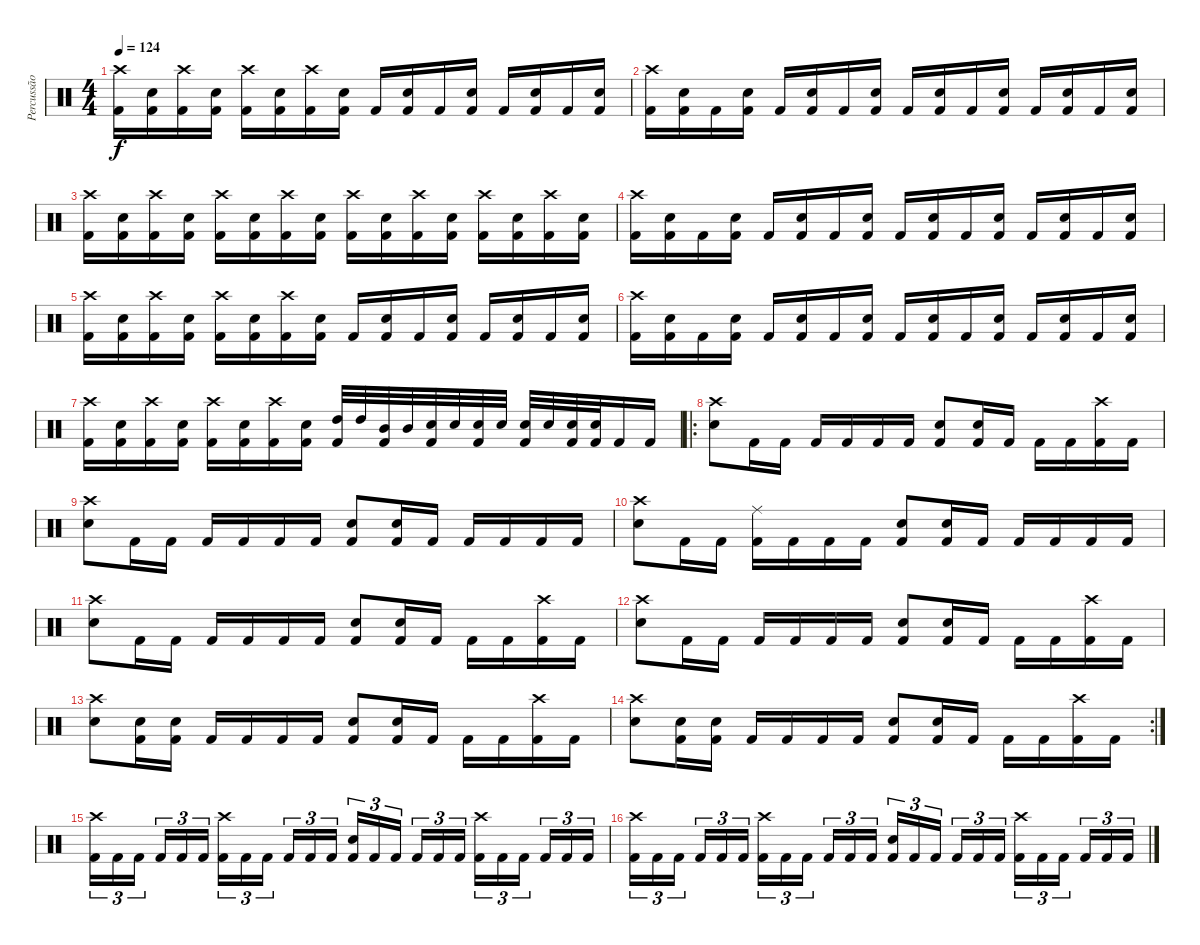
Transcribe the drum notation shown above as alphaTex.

\track ("Percussão" "Percussão") {instrument percussion}
\staff {score}
\articulation defaults
\ts (4 4)
\tempo 124
\clef neutral
\ks c
("Kick (hit) 2" "Crash high (hit)").16{dy f} ("Kick (hit) 2" "Electric Snare (hit)").16 ("Kick (hit) 2" "Crash high (hit)").16 ("Kick (hit) 2" "Electric Snare (hit)").16 ("Kick (hit) 2" "Crash high (hit)").16 ("Kick (hit) 2" "Electric Snare (hit)").16 ("Kick (hit) 2" "Crash high (hit)").16 ("Kick (hit) 2" "Electric Snare (hit)").16 "Kick (hit) 2".16 ("Kick (hit) 2" "Electric Snare (hit)").16 "Kick (hit) 2".16 ("Kick (hit) 2" "Electric Snare (hit)").16 "Kick (hit) 2".16 ("Kick (hit) 2" "Electric Snare (hit)").16 "Kick (hit) 2".16 ("Kick (hit) 2" "Electric Snare (hit)").16 |
("Kick (hit) 2" "Crash high (hit)").16 ("Kick (hit) 2" "Electric Snare (hit)").16 "Kick (hit) 2".16 ("Kick (hit) 2" "Electric Snare (hit)").16 "Kick (hit) 2".16 ("Kick (hit) 2" "Electric Snare (hit)").16 "Kick (hit) 2".16 ("Kick (hit) 2" "Electric Snare (hit)").16 "Kick (hit) 2".16 ("Kick (hit) 2" "Electric Snare (hit)").16 "Kick (hit) 2".16 ("Kick (hit) 2" "Electric Snare (hit)").16 "Kick (hit) 2".16 ("Kick (hit) 2" "Electric Snare (hit)").16 "Kick (hit) 2".16 ("Kick (hit) 2" "Electric Snare (hit)").16 |
("Kick (hit) 2" "Crash high (hit)").16 ("Kick (hit) 2" "Electric Snare (hit)").16 ("Kick (hit) 2" "Crash high (hit)").16 ("Kick (hit) 2" "Electric Snare (hit)").16 ("Kick (hit) 2" "Crash high (hit)").16 ("Kick (hit) 2" "Electric Snare (hit)").16 ("Kick (hit) 2" "Crash high (hit)").16 ("Kick (hit) 2" "Electric Snare (hit)").16 ("Kick (hit) 2" "Crash high (hit)").16 ("Kick (hit) 2" "Electric Snare (hit)").16 ("Kick (hit) 2" "Crash high (hit)").16 ("Kick (hit) 2" "Electric Snare (hit)").16 ("Kick (hit) 2" "Crash high (hit)").16 ("Kick (hit) 2" "Electric Snare (hit)").16 ("Kick (hit) 2" "Crash high (hit)").16 ("Kick (hit) 2" "Electric Snare (hit)").16 |
("Kick (hit) 2" "Crash high (hit)").16 ("Kick (hit) 2" "Electric Snare (hit)").16 "Kick (hit) 2".16 ("Kick (hit) 2" "Electric Snare (hit)").16 "Kick (hit) 2".16 ("Kick (hit) 2" "Electric Snare (hit)").16 "Kick (hit) 2".16 ("Kick (hit) 2" "Electric Snare (hit)").16 "Kick (hit) 2".16 ("Kick (hit) 2" "Electric Snare (hit)").16 "Kick (hit) 2".16 ("Kick (hit) 2" "Electric Snare (hit)").16 "Kick (hit) 2".16 ("Kick (hit) 2" "Electric Snare (hit)").16 "Kick (hit) 2".16 ("Kick (hit) 2" "Electric Snare (hit)").16 |
("Kick (hit) 2" "Crash high (hit)").16 ("Kick (hit) 2" "Electric Snare (hit)").16 ("Kick (hit) 2" "Crash high (hit)").16 ("Kick (hit) 2" "Electric Snare (hit)").16 ("Kick (hit) 2" "Crash high (hit)").16 ("Kick (hit) 2" "Electric Snare (hit)").16 ("Kick (hit) 2" "Crash high (hit)").16 ("Kick (hit) 2" "Electric Snare (hit)").16 "Kick (hit) 2".16 ("Kick (hit) 2" "Electric Snare (hit)").16 "Kick (hit) 2".16 ("Kick (hit) 2" "Electric Snare (hit)").16 "Kick (hit) 2".16 ("Kick (hit) 2" "Electric Snare (hit)").16 "Kick (hit) 2".16 ("Kick (hit) 2" "Electric Snare (hit)").16 |
("Kick (hit) 2" "Crash high (hit)").16 ("Kick (hit) 2" "Electric Snare (hit)").16 "Kick (hit) 2".16 ("Kick (hit) 2" "Electric Snare (hit)").16 "Kick (hit) 2".16 ("Kick (hit) 2" "Electric Snare (hit)").16 "Kick (hit) 2".16 ("Kick (hit) 2" "Electric Snare (hit)").16 "Kick (hit) 2".16 ("Kick (hit) 2" "Electric Snare (hit)").16 "Kick (hit) 2".16 ("Kick (hit) 2" "Electric Snare (hit)").16 "Kick (hit) 2".16 ("Kick (hit) 2" "Electric Snare (hit)").16 "Kick (hit) 2".16 ("Kick (hit) 2" "Electric Snare (hit)").16 |
("Kick (hit) 2" "Crash high (hit)").16 ("Kick (hit) 2" "Electric Snare (hit)").16 ("Kick (hit) 2" "Crash high (hit)").16 ("Kick (hit) 2" "Electric Snare (hit)").16 ("Kick (hit) 2" "Crash high (hit)").16 ("Kick (hit) 2" "Electric Snare (hit)").16 ("Kick (hit) 2" "Crash high (hit)").16 ("Kick (hit) 2" "Electric Snare (hit)").16 ("Kick (hit) 2" "High Tom (hit)").32 "High Tom (hit)".32 ("Kick (hit) 2" "Mid Tom (hit)").32 "Mid Tom (hit)".32 ("Kick (hit) 2" "Electric Snare (hit)").32 "Electric Snare (hit)".32 ("Kick (hit) 2" "Electric Snare (hit)").32 "Electric Snare (hit)".32 ("Kick (hit) 2" "Electric Snare (hit)").32 "Electric Snare (hit)".32 ("Kick (hit) 2" "Electric Snare (hit)").32 ("Kick (hit) 2" "Electric Snare (hit)").32 "Kick (hit) 2".16 "Kick (hit) 2".16 |
\ro
("Electric Snare (hit)" "Crash high (hit)").8 "Kick (hit) 2".16 "Kick (hit) 2".16 "Kick (hit) 2".16 "Kick (hit) 2".16 "Kick (hit) 2".16 "Kick (hit) 2".16 ("Kick (hit) 2" "Electric Snare (hit)").8 ("Kick (hit) 2" "Electric Snare (hit)").16 "Kick (hit) 2".16 "Kick (hit) 2".16 "Kick (hit) 2".16 ("Kick (hit) 2" "Crash high (hit)").16 "Kick (hit) 2".16 |
("Electric Snare (hit)" "Crash high (hit)").8 "Kick (hit) 2".16 "Kick (hit) 2".16 "Kick (hit) 2".16 "Kick (hit) 2".16 "Kick (hit) 2".16 "Kick (hit) 2".16 ("Kick (hit) 2" "Electric Snare (hit)").8 ("Kick (hit) 2" "Electric Snare (hit)").16 "Kick (hit) 2".16 "Kick (hit) 2".16 "Kick (hit) 2".16 "Kick (hit) 2".16 "Kick (hit) 2".16 |
("Electric Snare (hit)" "Crash high (hit)").8 "Kick (hit) 2".16 "Kick (hit) 2".16 ("Kick (hit) 2" "Ride (middle)").16 "Kick (hit) 2".16 "Kick (hit) 2".16 "Kick (hit) 2".16 ("Kick (hit) 2" "Electric Snare (hit)").8 ("Kick (hit) 2" "Electric Snare (hit)").16 "Kick (hit) 2".16 "Kick (hit) 2".16 "Kick (hit) 2".16 "Kick (hit) 2".16 "Kick (hit) 2".16 |
("Electric Snare (hit)" "Crash high (hit)").8 "Kick (hit) 2".16 "Kick (hit) 2".16 "Kick (hit) 2".16 "Kick (hit) 2".16 "Kick (hit) 2".16 "Kick (hit) 2".16 ("Kick (hit) 2" "Electric Snare (hit)").8 ("Kick (hit) 2" "Electric Snare (hit)").16 "Kick (hit) 2".16 "Kick (hit) 2".16 "Kick (hit) 2".16 ("Kick (hit) 2" "Crash high (hit)").16 "Kick (hit) 2".16 |
("Electric Snare (hit)" "Crash high (hit)").8 "Kick (hit) 2".16 "Kick (hit) 2".16 "Kick (hit) 2".16 "Kick (hit) 2".16 "Kick (hit) 2".16 "Kick (hit) 2".16 ("Kick (hit) 2" "Electric Snare (hit)").8 ("Kick (hit) 2" "Electric Snare (hit)").16 "Kick (hit) 2".16 "Kick (hit) 2".16 "Kick (hit) 2".16 ("Kick (hit) 2" "Crash high (hit)").16 "Kick (hit) 2".16 |
("Electric Snare (hit)" "Crash high (hit)").8 ("Kick (hit) 2" "Electric Snare (hit)").16 ("Kick (hit) 2" "Electric Snare (hit)").16 "Kick (hit) 2".16 "Kick (hit) 2".16 "Kick (hit) 2".16 "Kick (hit) 2".16 ("Kick (hit) 2" "Electric Snare (hit)").8 ("Kick (hit) 2" "Electric Snare (hit)").16 "Kick (hit) 2".16 "Kick (hit) 2".16 "Kick (hit) 2".16 ("Kick (hit) 2" "Crash high (hit)").16 "Kick (hit) 2".16 |
\rc 2
("Electric Snare (hit)" "Crash high (hit)").8 ("Kick (hit) 2" "Electric Snare (hit)").16 ("Kick (hit) 2" "Electric Snare (hit)").16 "Kick (hit) 2".16 "Kick (hit) 2".16 "Kick (hit) 2".16 "Kick (hit) 2".16 ("Kick (hit) 2" "Electric Snare (hit)").8 ("Kick (hit) 2" "Electric Snare (hit)").16 "Kick (hit) 2".16 "Kick (hit) 2".16 "Kick (hit) 2".16 ("Kick (hit) 2" "Crash high (hit)").16 "Kick (hit) 2".16 |
("Kick (hit) 2" "Crash high (hit)").16{tu (3 2)} "Kick (hit) 2".16{tu (3 2)} "Kick (hit) 2".16{tu (3 2)} "Kick (hit) 2".16{tu (3 2)} "Kick (hit) 2".16{tu (3 2)} "Kick (hit) 2".16{tu (3 2)} ("Kick (hit) 2" "Crash high (hit)").16{tu (3 2)} "Kick (hit) 2".16{tu (3 2)} "Kick (hit) 2".16{tu (3 2)} "Kick (hit) 2".16{tu (3 2)} "Kick (hit) 2".16{tu (3 2)} "Kick (hit) 2".16{tu (3 2)} ("Kick (hit) 2" "Electric Snare (hit)").16{tu (3 2)} "Kick (hit) 2".16{tu (3 2)} "Kick (hit) 2".16{tu (3 2)} "Kick (hit) 2".16{tu (3 2)} "Kick (hit) 2".16{tu (3 2)} "Kick (hit) 2".16{tu (3 2)} ("Kick (hit) 2" "Crash high (hit)").16{tu (3 2)} "Kick (hit) 2".16{tu (3 2)} "Kick (hit) 2".16{tu (3 2)} "Kick (hit) 2".16{tu (3 2)} "Kick (hit) 2".16{tu (3 2)} "Kick (hit) 2".16{tu (3 2)} |
("Kick (hit) 2" "Crash high (hit)").16{tu (3 2)} "Kick (hit) 2".16{tu (3 2)} "Kick (hit) 2".16{tu (3 2)} "Kick (hit) 2".16{tu (3 2)} "Kick (hit) 2".16{tu (3 2)} "Kick (hit) 2".16{tu (3 2)} ("Kick (hit) 2" "Crash high (hit)").16{tu (3 2)} "Kick (hit) 2".16{tu (3 2)} "Kick (hit) 2".16{tu (3 2)} "Kick (hit) 2".16{tu (3 2)} "Kick (hit) 2".16{tu (3 2)} "Kick (hit) 2".16{tu (3 2)} ("Kick (hit) 2" "Electric Snare (hit)").16{tu (3 2)} "Kick (hit) 2".16{tu (3 2)} "Kick (hit) 2".16{tu (3 2)} "Kick (hit) 2".16{tu (3 2)} "Kick (hit) 2".16{tu (3 2)} "Kick (hit) 2".16{tu (3 2)} ("Kick (hit) 2" "Crash high (hit)").16{tu (3 2)} "Kick (hit) 2".16{tu (3 2)} "Kick (hit) 2".16{tu (3 2)} "Kick (hit) 2".16{tu (3 2)} "Kick (hit) 2".16{tu (3 2)} "Kick (hit) 2".16{tu (3 2)}
